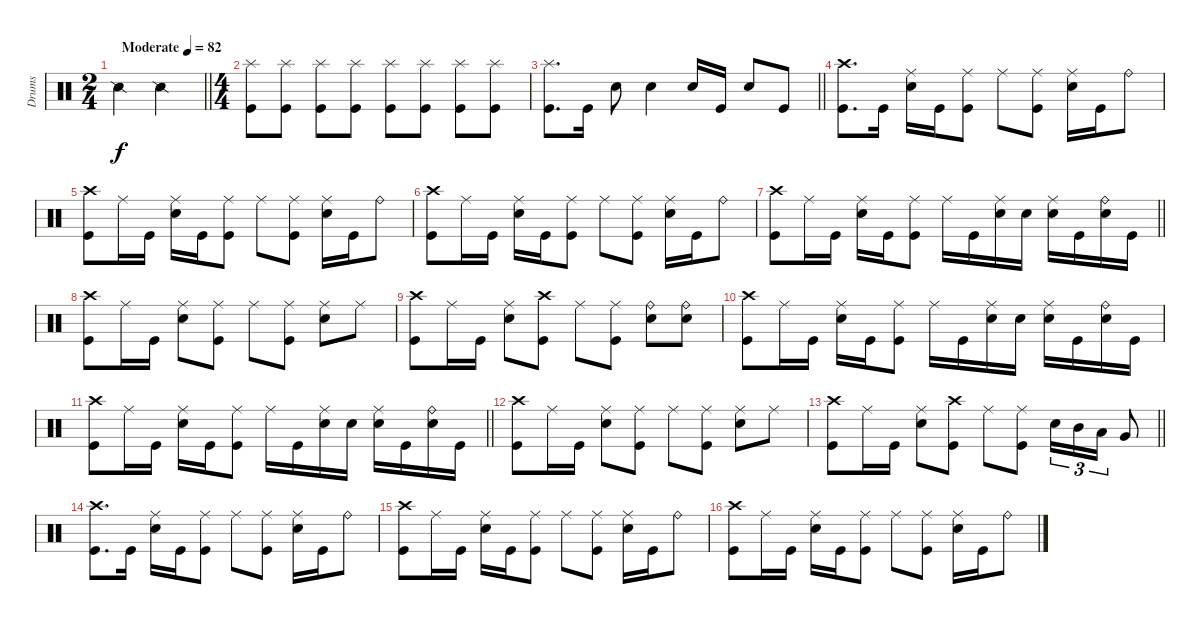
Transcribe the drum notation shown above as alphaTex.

\track ("Drums" "Drums") {instrument percussion}
\staff
\articulation defaults
\ts (2 4)
\tempo (82 "Moderate")
\clef neutral
\barLineRight lightlight
\ks c "Snare (side stick) 2".4{dy f} "Snare (side stick) 2".4
|
\ts (4 4)
("Splash (hit)" "Kick (hit)").8 ("Splash (hit)" "Kick (hit)").8 ("Splash (hit)" "Kick (hit)").8 ("Splash (hit)" "Kick (hit)").8 ("Splash (hit)" "Kick (hit)").8 ("Splash (hit)" "Kick (hit)").8 ("Splash (hit)" "Kick (hit)").8 ("Splash (hit)" "Kick (hit)").8 |
\barLineRight lightlight
("Splash (hit)" "Kick (hit)").8{d} "Kick (hit)".16 "Electric Snare (hit)".8 "Electric Snare (hit)".4 "Electric Snare (hit)".16 "Kick (hit)".16 "Electric Snare (hit)".8 "Kick (hit)".8 |
("Crash high (hit)" "Kick (hit)").8{d} "Kick (hit)".16 ("Ride (middle)" "Electric Snare (hit)").16 "Kick (hit)".16 ("Ride (middle)" "Kick (hit)").8 "Ride (middle)".8 ("Ride (middle)" "Kick (hit)").8 ("Ride (middle)" "Electric Snare (hit)").16 "Kick (hit)".16 "Ride (bell)".8 |
("Crash high (hit)" "Kick (hit)").8 "Ride (middle)".16 "Kick (hit)".16 ("Ride (middle)" "Electric Snare (hit)").16 "Kick (hit)".16 ("Ride (middle)" "Kick (hit)").8 "Ride (middle)".8 ("Ride (middle)" "Kick (hit)").8 ("Ride (middle)" "Electric Snare (hit)").16 "Kick (hit)".16 "Ride (bell)".8 |
("Crash high (hit)" "Kick (hit)").8 "Ride (middle)".16 "Kick (hit)".16 ("Ride (middle)" "Electric Snare (hit)").16 "Kick (hit)".16 ("Ride (middle)" "Kick (hit)").8 "Ride (middle)".8 ("Ride (middle)" "Kick (hit)").8 ("Ride (middle)" "Electric Snare (hit)").16 "Kick (hit)".16 "Ride (bell)".8 |
\barLineRight lightlight
("Crash high (hit)" "Kick (hit)").8 "Ride (middle)".16 "Kick (hit)".16 ("Ride (middle)" "Electric Snare (hit)").16 "Kick (hit)".16 ("Ride (middle)" "Kick (hit)").8 "Ride (middle)".16 "Kick (hit)".16 ("Ride (middle)" "Electric Snare (hit)").16 "Electric Snare (hit)".16 ("Ride (middle)" "Electric Snare (hit)").16 "Kick (hit)".16 ("Ride (bell)" "Electric Snare (hit)").16 "Kick (hit)".16 |
("Crash high (hit)" "Kick (hit)").8 "Ride (middle)".16 "Kick (hit)".16 ("Ride (middle)" "Electric Snare (hit)").8 ("Ride (middle)" "Kick (hit)").8 "Ride (middle)".8 ("Ride (middle)" "Kick (hit)").8 ("Ride (middle)" "Electric Snare (hit)").8 "Ride (middle)".8 |
("Crash high (hit)" "Kick (hit)").8 "Ride (middle)".16 "Kick (hit)".16 ("Ride (middle)" "Electric Snare (hit)").8 ("Crash high (hit)" "Kick (hit)").8 "Ride (middle)".8 ("Ride (middle)" "Kick (hit)").8 ("Ride (bell)" "Electric Snare (hit)").8 ("Ride (bell)" "Electric Snare (hit)").8 |
("Crash high (hit)" "Kick (hit)").8 "Ride (middle)".16 "Kick (hit)".16 ("Ride (middle)" "Electric Snare (hit)").16 "Kick (hit)".16 ("Ride (middle)" "Kick (hit)").8 "Ride (middle)".16 "Kick (hit)".16 ("Ride (middle)" "Electric Snare (hit)").16 "Electric Snare (hit)".16 ("Ride (middle)" "Electric Snare (hit)").16 "Kick (hit)".16 ("Ride (bell)" "Electric Snare (hit)").16 "Kick (hit)".16 |
\barLineRight lightlight
("Crash high (hit)" "Kick (hit)").8 "Ride (middle)".16 "Kick (hit)".16 ("Ride (middle)" "Electric Snare (hit)").16 "Kick (hit)".16 ("Ride (middle)" "Kick (hit)").8 "Ride (middle)".16 "Kick (hit)".16 ("Ride (middle)" "Electric Snare (hit)").16 "Electric Snare (hit)".16 ("Ride (middle)" "Electric Snare (hit)").16 "Kick (hit)".16 ("Ride (bell)" "Electric Snare (hit)").16 "Kick (hit)".16 |
("Crash high (hit)" "Kick (hit)").8 "Ride (middle)".16 "Kick (hit)".16 ("Ride (middle)" "Electric Snare (hit)").8 ("Ride (middle)" "Kick (hit)").8 "Ride (middle)".8 ("Ride (middle)" "Kick (hit)").8 ("Ride (middle)" "Electric Snare (hit)").8 "Ride (middle)".8 |
\barLineRight lightlight
("Crash high (hit)" "Kick (hit)").8 "Ride (middle)".16 "Kick (hit)".16 ("Ride (middle)" "Electric Snare (hit)").8 ("Crash high (hit)" "Kick (hit)").8 "Ride (middle)".8 ("Ride (middle)" "Kick (hit)").8 "Electric Snare (hit)".16{tu (3 2)} "Mid Tom (hit)".16{tu (3 2)} "Low Tom (hit)".16{tu (3 2)} "Very Low Tom (hit)".8 |
("Crash high (hit)" "Kick (hit)").8{d} "Kick (hit)".16 ("Ride (middle)" "Electric Snare (hit)").16 "Kick (hit)".16 ("Ride (middle)" "Kick (hit)").8 "Ride (middle)".8 ("Ride (middle)" "Kick (hit)").8 ("Ride (middle)" "Electric Snare (hit)").16 "Kick (hit)".16 "Ride (bell)".8 |
("Crash high (hit)" "Kick (hit)").8 "Ride (middle)".16 "Kick (hit)".16 ("Ride (middle)" "Electric Snare (hit)").16 "Kick (hit)".16 ("Ride (middle)" "Kick (hit)").8 "Ride (middle)".8 ("Ride (middle)" "Kick (hit)").8 ("Ride (middle)" "Electric Snare (hit)").16 "Kick (hit)".16 "Ride (bell)".8 |
("Crash high (hit)" "Kick (hit)").8 "Ride (middle)".16 "Kick (hit)".16 ("Ride (middle)" "Electric Snare (hit)").16 "Kick (hit)".16 ("Ride (middle)" "Kick (hit)").8 "Ride (middle)".8 ("Ride (middle)" "Kick (hit)").8 ("Ride (middle)" "Electric Snare (hit)").16 "Kick (hit)".16 "Ride (bell)".8
